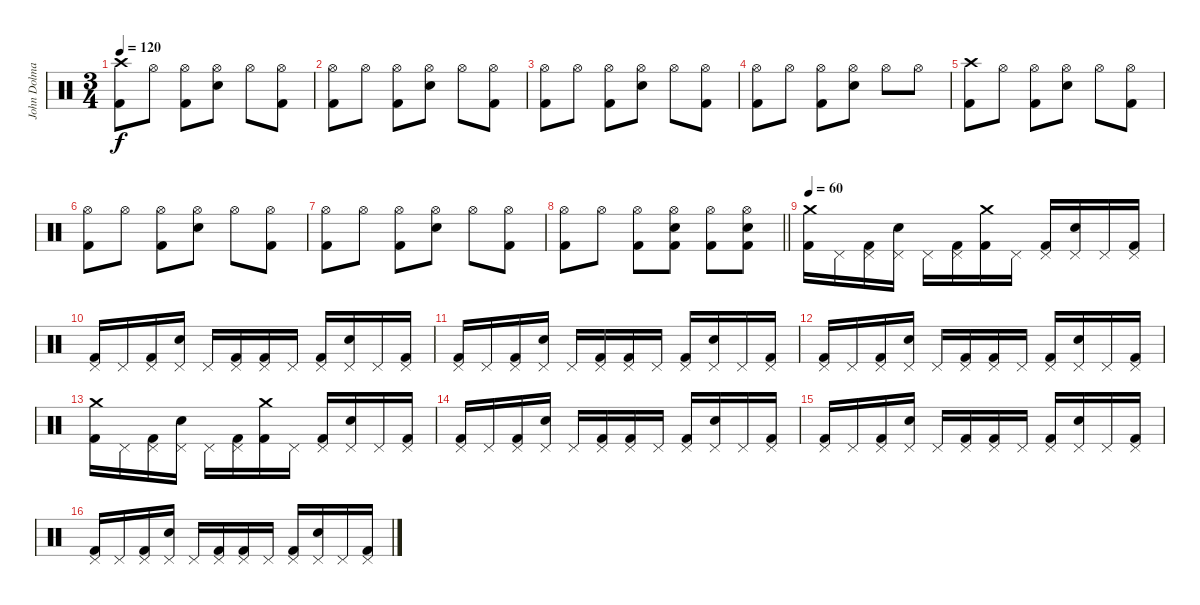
\track ("John Dolmayan" "John Dolma") {instrument percussion}
\staff {score}
\articulation defaults
\ts (3 4)
\tempo 120
\clef neutral
\ks c
("Crash high (hit)" "Kick (hit) 2").8{dy f} "Hi-Hat (open)".8 ("Hi-Hat (open)" "Kick (hit) 2").8 ("Hi-Hat (open)" "Electric Snare (hit)").8 "Hi-Hat (open)".8 ("Hi-Hat (open)" "Kick (hit) 2").8 |
("Hi-Hat (open)" "Kick (hit) 2").8 "Hi-Hat (open)".8 ("Hi-Hat (open)" "Kick (hit) 2").8 ("Hi-Hat (open)" "Electric Snare (hit)").8 "Hi-Hat (open)".8 ("Hi-Hat (open)" "Kick (hit) 2").8 |
("Hi-Hat (open)" "Kick (hit) 2").8 "Hi-Hat (open)".8 ("Hi-Hat (open)" "Kick (hit) 2").8 ("Hi-Hat (open)" "Electric Snare (hit)").8 "Hi-Hat (open)".8 ("Hi-Hat (open)" "Kick (hit) 2").8 |
("Hi-Hat (open)" "Kick (hit) 2").8 "Hi-Hat (open)".8 ("Hi-Hat (open)" "Kick (hit) 2").8 ("Hi-Hat (open)" "Electric Snare (hit)").8 "Hi-Hat (open)".8 "Hi-Hat (open)".8 |
("Crash high (hit)" "Kick (hit) 2").8 "Hi-Hat (open)".8 ("Hi-Hat (open)" "Kick (hit) 2").8 ("Hi-Hat (open)" "Electric Snare (hit)").8 "Hi-Hat (open)".8 ("Hi-Hat (open)" "Kick (hit) 2").8 |
("Hi-Hat (open)" "Kick (hit) 2").8 "Hi-Hat (open)".8 ("Hi-Hat (open)" "Kick (hit) 2").8 ("Hi-Hat (open)" "Electric Snare (hit)").8 "Hi-Hat (open)".8 ("Hi-Hat (open)" "Kick (hit) 2").8 |
("Hi-Hat (open)" "Kick (hit) 2").8 "Hi-Hat (open)".8 ("Hi-Hat (open)" "Kick (hit) 2").8 ("Hi-Hat (open)" "Electric Snare (hit)").8 "Hi-Hat (open)".8 ("Hi-Hat (open)" "Kick (hit) 2").8 |
\barLineRight lightlight
("Hi-Hat (open)" "Kick (hit) 2").8 "Hi-Hat (open)".8 ("Hi-Hat (open)" "Kick (hit) 2").8 ("Hi-Hat (open)" "Electric Snare (hit)" "Kick (hit) 2").8 ("Hi-Hat (open)" "Kick (hit) 2").8 ("Hi-Hat (open)" "Electric Snare (hit)" "Kick (hit) 2").8 |
\tempo 60
("Crash medium (hit)" "Kick (hit) 2").16 "Pedal Hi-Hat (hit)".16 ("Pedal Hi-Hat (hit)" "Kick (hit) 2").16 ("Pedal Hi-Hat (hit)" "Electric Snare (hit)").16 "Pedal Hi-Hat (hit)".16 ("Pedal Hi-Hat (hit)" "Kick (hit) 2").16 ("Crash medium (hit)" "Kick (hit) 2").16 "Pedal Hi-Hat (hit)".16 ("Pedal Hi-Hat (hit)" "Kick (hit) 2").16 ("Pedal Hi-Hat (hit)" "Electric Snare (hit)").16 "Pedal Hi-Hat (hit)".16 ("Pedal Hi-Hat (hit)" "Kick (hit) 2").16 |
("Pedal Hi-Hat (hit)" "Kick (hit) 2").16 "Pedal Hi-Hat (hit)".16 ("Pedal Hi-Hat (hit)" "Kick (hit) 2").16 ("Pedal Hi-Hat (hit)" "Electric Snare (hit)").16 "Pedal Hi-Hat (hit)".16 ("Pedal Hi-Hat (hit)" "Kick (hit) 2").16 ("Pedal Hi-Hat (hit)" "Kick (hit) 2").16 "Pedal Hi-Hat (hit)".16 ("Pedal Hi-Hat (hit)" "Kick (hit) 2").16 ("Pedal Hi-Hat (hit)" "Electric Snare (hit)").16 "Pedal Hi-Hat (hit)".16 ("Pedal Hi-Hat (hit)" "Kick (hit) 2").16 |
("Pedal Hi-Hat (hit)" "Kick (hit) 2").16 "Pedal Hi-Hat (hit)".16 ("Pedal Hi-Hat (hit)" "Kick (hit) 2").16 ("Pedal Hi-Hat (hit)" "Electric Snare (hit)").16 "Pedal Hi-Hat (hit)".16 ("Pedal Hi-Hat (hit)" "Kick (hit) 2").16 ("Pedal Hi-Hat (hit)" "Kick (hit) 2").16 "Pedal Hi-Hat (hit)".16 ("Pedal Hi-Hat (hit)" "Kick (hit) 2").16 ("Pedal Hi-Hat (hit)" "Electric Snare (hit)").16 "Pedal Hi-Hat (hit)".16 ("Pedal Hi-Hat (hit)" "Kick (hit) 2").16 |
("Pedal Hi-Hat (hit)" "Kick (hit) 2").16 "Pedal Hi-Hat (hit)".16 ("Pedal Hi-Hat (hit)" "Kick (hit) 2").16 ("Pedal Hi-Hat (hit)" "Electric Snare (hit)").16 "Pedal Hi-Hat (hit)".16 ("Pedal Hi-Hat (hit)" "Kick (hit) 2").16 ("Pedal Hi-Hat (hit)" "Kick (hit) 2").16 "Pedal Hi-Hat (hit)".16 ("Pedal Hi-Hat (hit)" "Kick (hit) 2").16 ("Pedal Hi-Hat (hit)" "Electric Snare (hit)").16 "Pedal Hi-Hat (hit)".16 ("Pedal Hi-Hat (hit)" "Kick (hit) 2").16 |
("Crash medium (hit)" "Kick (hit) 2").16 "Pedal Hi-Hat (hit)".16 ("Pedal Hi-Hat (hit)" "Kick (hit) 2").16 ("Pedal Hi-Hat (hit)" "Electric Snare (hit)").16 "Pedal Hi-Hat (hit)".16 ("Pedal Hi-Hat (hit)" "Kick (hit) 2").16 ("Crash medium (hit)" "Kick (hit) 2").16 "Pedal Hi-Hat (hit)".16 ("Pedal Hi-Hat (hit)" "Kick (hit) 2").16 ("Pedal Hi-Hat (hit)" "Electric Snare (hit)").16 "Pedal Hi-Hat (hit)".16 ("Pedal Hi-Hat (hit)" "Kick (hit) 2").16 |
("Pedal Hi-Hat (hit)" "Kick (hit) 2").16 "Pedal Hi-Hat (hit)".16 ("Pedal Hi-Hat (hit)" "Kick (hit) 2").16 ("Pedal Hi-Hat (hit)" "Electric Snare (hit)").16 "Pedal Hi-Hat (hit)".16 ("Pedal Hi-Hat (hit)" "Kick (hit) 2").16 ("Pedal Hi-Hat (hit)" "Kick (hit) 2").16 "Pedal Hi-Hat (hit)".16 ("Pedal Hi-Hat (hit)" "Kick (hit) 2").16 ("Pedal Hi-Hat (hit)" "Electric Snare (hit)").16 "Pedal Hi-Hat (hit)".16 ("Pedal Hi-Hat (hit)" "Kick (hit) 2").16 |
("Pedal Hi-Hat (hit)" "Kick (hit) 2").16 "Pedal Hi-Hat (hit)".16 ("Pedal Hi-Hat (hit)" "Kick (hit) 2").16 ("Pedal Hi-Hat (hit)" "Electric Snare (hit)").16 "Pedal Hi-Hat (hit)".16 ("Pedal Hi-Hat (hit)" "Kick (hit) 2").16 ("Pedal Hi-Hat (hit)" "Kick (hit) 2").16 "Pedal Hi-Hat (hit)".16 ("Pedal Hi-Hat (hit)" "Kick (hit) 2").16 ("Pedal Hi-Hat (hit)" "Electric Snare (hit)").16 "Pedal Hi-Hat (hit)".16 ("Pedal Hi-Hat (hit)" "Kick (hit) 2").16 |
("Pedal Hi-Hat (hit)" "Kick (hit) 2").16 "Pedal Hi-Hat (hit)".16 ("Pedal Hi-Hat (hit)" "Kick (hit) 2").16 ("Pedal Hi-Hat (hit)" "Electric Snare (hit)").16 "Pedal Hi-Hat (hit)".16 ("Pedal Hi-Hat (hit)" "Kick (hit) 2").16 ("Pedal Hi-Hat (hit)" "Kick (hit) 2").16 "Pedal Hi-Hat (hit)".16 ("Pedal Hi-Hat (hit)" "Kick (hit) 2").16 ("Pedal Hi-Hat (hit)" "Electric Snare (hit)").16 "Pedal Hi-Hat (hit)".16 ("Pedal Hi-Hat (hit)" "Kick (hit) 2").16
